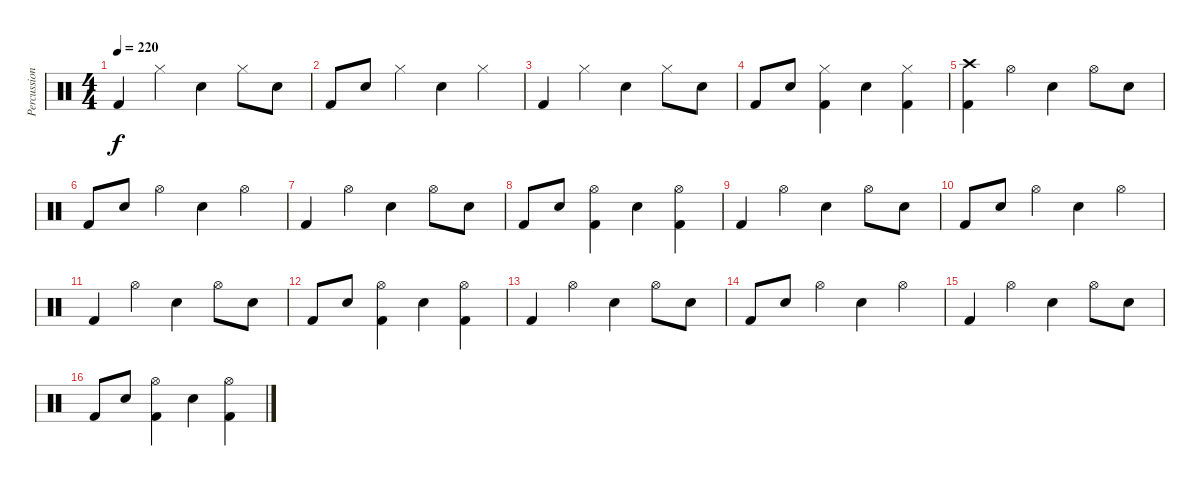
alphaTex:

\track ("Percussion" "Percussion") {instrument percussion}
\staff {score}
\articulation defaults
\ts (4 4)
\tempo 220
\clef neutral
\ks c "Kick (hit) 2".4{dy f} "Hi-Hat (closed)".4 "Electric Snare (hit)".4 "Hi-Hat (closed)".8 "Electric Snare (hit)".8
|
"Kick (hit) 2".8 "Electric Snare (hit)".8 "Hi-Hat (closed)".4 "Electric Snare (hit)".4 "Hi-Hat (closed)".4 |
"Kick (hit) 2".4 "Hi-Hat (closed)".4 "Electric Snare (hit)".4 "Hi-Hat (closed)".8 "Electric Snare (hit)".8 |
"Kick (hit) 2".8 "Electric Snare (hit)".8 ("Hi-Hat (closed)" "Kick (hit) 2").4 "Electric Snare (hit)".4 ("Hi-Hat (closed)" "Kick (hit) 2").4 |
("Crash high (hit)" "Kick (hit) 2").4 "Hi-Hat (open)".4 "Electric Snare (hit)".4 "Hi-Hat (open)".8 "Electric Snare (hit)".8 |
"Kick (hit) 2".8 "Electric Snare (hit)".8 "Hi-Hat (open)".4 "Electric Snare (hit)".4 "Hi-Hat (open)".4 |
"Kick (hit) 2".4 "Hi-Hat (open)".4 "Electric Snare (hit)".4 "Hi-Hat (open)".8 "Electric Snare (hit)".8 |
"Kick (hit) 2".8 "Electric Snare (hit)".8 ("Hi-Hat (open)" "Kick (hit) 2").4 "Electric Snare (hit)".4 ("Hi-Hat (open)" "Kick (hit) 2").4 |
"Kick (hit) 2".4 "Hi-Hat (open)".4 "Electric Snare (hit)".4 "Hi-Hat (open)".8 "Electric Snare (hit)".8 |
"Kick (hit) 2".8 "Electric Snare (hit)".8 "Hi-Hat (open)".4 "Electric Snare (hit)".4 "Hi-Hat (open)".4 |
"Kick (hit) 2".4 "Hi-Hat (open)".4 "Electric Snare (hit)".4 "Hi-Hat (open)".8 "Electric Snare (hit)".8 |
"Kick (hit) 2".8 "Electric Snare (hit)".8 ("Hi-Hat (open)" "Kick (hit) 2").4 "Electric Snare (hit)".4 ("Hi-Hat (open)" "Kick (hit) 2").4 |
"Kick (hit) 2".4 "Hi-Hat (open)".4 "Electric Snare (hit)".4 "Hi-Hat (open)".8 "Electric Snare (hit)".8 |
"Kick (hit) 2".8 "Electric Snare (hit)".8 "Hi-Hat (open)".4 "Electric Snare (hit)".4 "Hi-Hat (open)".4 |
"Kick (hit) 2".4 "Hi-Hat (open)".4 "Electric Snare (hit)".4 "Hi-Hat (open)".8 "Electric Snare (hit)".8 |
"Kick (hit) 2".8 "Electric Snare (hit)".8 ("Hi-Hat (open)" "Kick (hit) 2").4 "Electric Snare (hit)".4 ("Hi-Hat (open)" "Kick (hit) 2").4
